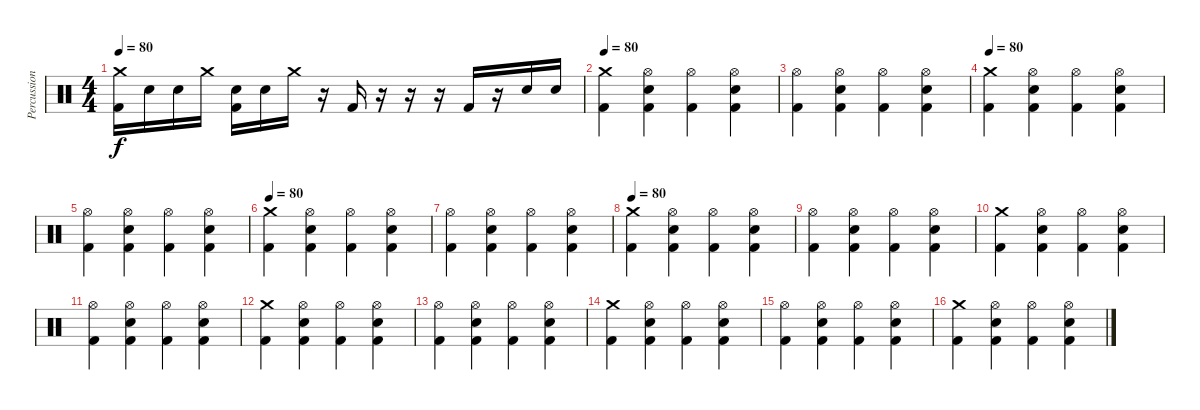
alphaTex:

\track ("Percussion" "Percussion") {instrument percussion}
\staff {score}
\articulation defaults
\ts (4 4)
\tempo 80
\clef neutral
\ks c
("Crash medium (hit)" "Kick (hit) 2").16{dy f} "Electric Snare (hit)".16 "Electric Snare (hit)".16 "Crash medium (hit)".16 ("Electric Snare (hit)" "Kick (hit) 2").16 "Electric Snare (hit)".16 "Crash medium (hit)".16 r.16 "Kick (hit) 2".16 r.16 r.16 r.16 "Kick (hit) 2".16 r.16 "Electric Snare (hit)".16 "Electric Snare (hit)".16 |
\tempo 80
("Crash medium (hit)" "Kick (hit) 2").4 ("Hi-Hat (open)" "Electric Snare (hit)" "Kick (hit) 2").4 ("Hi-Hat (open)" "Kick (hit) 2").4 ("Hi-Hat (open)" "Electric Snare (hit)" "Kick (hit) 2").4 |
("Hi-Hat (open)" "Kick (hit) 2").4 ("Hi-Hat (open)" "Electric Snare (hit)" "Kick (hit) 2").4 ("Hi-Hat (open)" "Kick (hit) 2").4 ("Hi-Hat (open)" "Electric Snare (hit)" "Kick (hit) 2").4 |
\tempo 80
("Crash medium (hit)" "Kick (hit) 2").4 ("Hi-Hat (open)" "Electric Snare (hit)" "Kick (hit) 2").4 ("Hi-Hat (open)" "Kick (hit) 2").4 ("Hi-Hat (open)" "Electric Snare (hit)" "Kick (hit) 2").4 |
("Hi-Hat (open)" "Kick (hit) 2").4 ("Hi-Hat (open)" "Electric Snare (hit)" "Kick (hit) 2").4 ("Hi-Hat (open)" "Kick (hit) 2").4 ("Hi-Hat (open)" "Electric Snare (hit)" "Kick (hit) 2").4 |
\tempo 80
("Crash medium (hit)" "Kick (hit) 2").4 ("Hi-Hat (open)" "Electric Snare (hit)" "Kick (hit) 2").4 ("Hi-Hat (open)" "Kick (hit) 2").4 ("Hi-Hat (open)" "Electric Snare (hit)" "Kick (hit) 2").4 |
("Hi-Hat (open)" "Kick (hit) 2").4 ("Hi-Hat (open)" "Electric Snare (hit)" "Kick (hit) 2").4 ("Hi-Hat (open)" "Kick (hit) 2").4 ("Hi-Hat (open)" "Electric Snare (hit)" "Kick (hit) 2").4 |
\tempo 80
("Crash medium (hit)" "Kick (hit) 2").4 ("Hi-Hat (open)" "Electric Snare (hit)" "Kick (hit) 2").4 ("Hi-Hat (open)" "Kick (hit) 2").4 ("Hi-Hat (open)" "Electric Snare (hit)" "Kick (hit) 2").4 |
("Hi-Hat (open)" "Kick (hit) 2").4 ("Hi-Hat (open)" "Electric Snare (hit)" "Kick (hit) 2").4 ("Hi-Hat (open)" "Kick (hit) 2").4 ("Hi-Hat (open)" "Electric Snare (hit)" "Kick (hit) 2").4 |
("Crash medium (hit)" "Kick (hit) 2").4 ("Hi-Hat (open)" "Electric Snare (hit)" "Kick (hit) 2").4 ("Hi-Hat (open)" "Kick (hit) 2").4 ("Hi-Hat (open)" "Electric Snare (hit)" "Kick (hit) 2").4 |
("Hi-Hat (open)" "Kick (hit) 2").4 ("Hi-Hat (open)" "Electric Snare (hit)" "Kick (hit) 2").4 ("Hi-Hat (open)" "Kick (hit) 2").4 ("Hi-Hat (open)" "Electric Snare (hit)" "Kick (hit) 2").4 |
("Crash medium (hit)" "Kick (hit) 2").4 ("Hi-Hat (open)" "Electric Snare (hit)" "Kick (hit) 2").4 ("Hi-Hat (open)" "Kick (hit) 2").4 ("Hi-Hat (open)" "Electric Snare (hit)" "Kick (hit) 2").4 |
("Hi-Hat (open)" "Kick (hit) 2").4 ("Hi-Hat (open)" "Electric Snare (hit)" "Kick (hit) 2").4 ("Hi-Hat (open)" "Kick (hit) 2").4 ("Hi-Hat (open)" "Electric Snare (hit)" "Kick (hit) 2").4 |
("Crash medium (hit)" "Kick (hit) 2").4 ("Hi-Hat (open)" "Electric Snare (hit)" "Kick (hit) 2").4 ("Hi-Hat (open)" "Kick (hit) 2").4 ("Hi-Hat (open)" "Electric Snare (hit)" "Kick (hit) 2").4 |
("Hi-Hat (open)" "Kick (hit) 2").4 ("Hi-Hat (open)" "Electric Snare (hit)" "Kick (hit) 2").4 ("Hi-Hat (open)" "Kick (hit) 2").4 ("Hi-Hat (open)" "Electric Snare (hit)" "Kick (hit) 2").4 |
("Crash medium (hit)" "Kick (hit) 2").4 ("Hi-Hat (open)" "Electric Snare (hit)" "Kick (hit) 2").4 ("Hi-Hat (open)" "Kick (hit) 2").4 ("Hi-Hat (open)" "Electric Snare (hit)" "Kick (hit) 2").4
